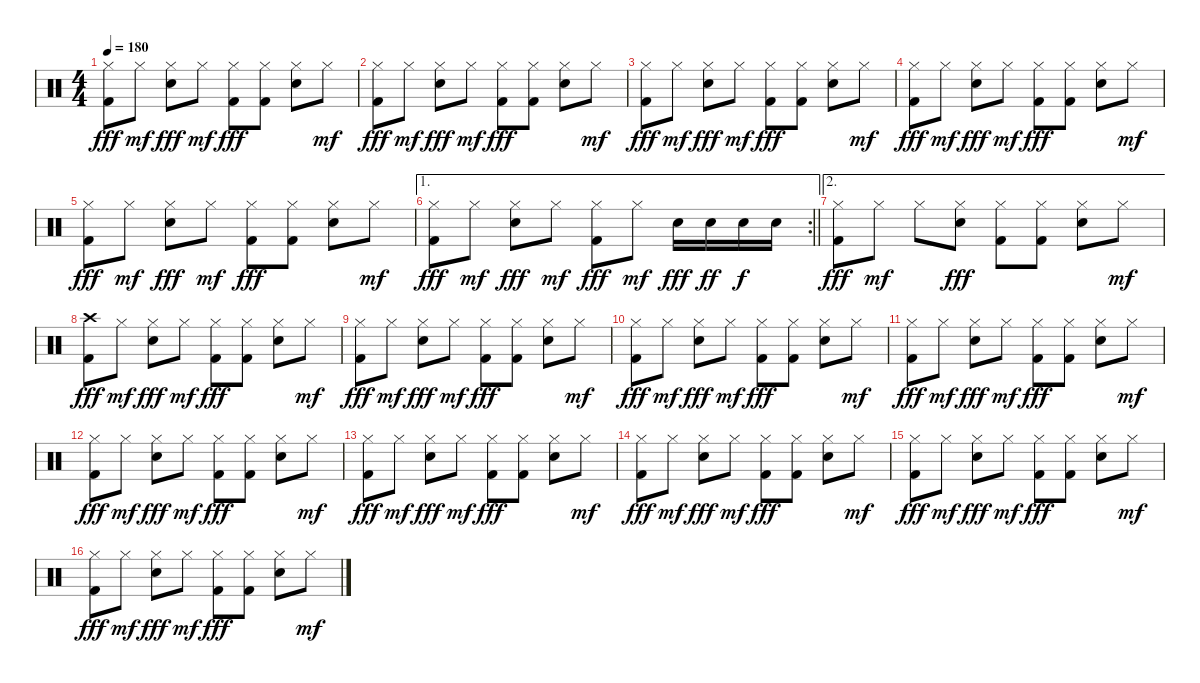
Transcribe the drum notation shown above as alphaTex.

\track "" {instrument percussion}
\staff {score}
\articulation defaults
\ts (4 4)
\tempo 180
\clef neutral
\ks c
("Hi-Hat (closed)" "Kick (hit) 2").8{dy fff} "Hi-Hat (closed)".8{dy mf} ("Hi-Hat (closed)" "Snare (hit) 2").8{dy fff} "Hi-Hat (closed)".8{dy mf} ("Hi-Hat (closed)" "Kick (hit) 2").8{dy fff} ("Hi-Hat (closed)" "Kick (hit) 2").8 ("Hi-Hat (closed)" "Snare (hit) 2").8 "Hi-Hat (closed)".8{dy mf} |
("Hi-Hat (closed)" "Kick (hit) 2").8{dy fff} "Hi-Hat (closed)".8{dy mf} ("Hi-Hat (closed)" "Snare (hit) 2").8{dy fff} "Hi-Hat (closed)".8{dy mf} ("Hi-Hat (closed)" "Kick (hit) 2").8{dy fff} ("Hi-Hat (closed)" "Kick (hit) 2").8 ("Hi-Hat (closed)" "Snare (hit) 2").8 "Hi-Hat (closed)".8{dy mf} |
("Hi-Hat (closed)" "Kick (hit) 2").8{dy fff} "Hi-Hat (closed)".8{dy mf} ("Hi-Hat (closed)" "Snare (hit) 2").8{dy fff} "Hi-Hat (closed)".8{dy mf} ("Hi-Hat (closed)" "Kick (hit) 2").8{dy fff} ("Hi-Hat (closed)" "Kick (hit) 2").8 ("Hi-Hat (closed)" "Snare (hit) 2").8 "Hi-Hat (closed)".8{dy mf} |
("Hi-Hat (closed)" "Kick (hit) 2").8{dy fff} "Hi-Hat (closed)".8{dy mf} ("Hi-Hat (closed)" "Snare (hit) 2").8{dy fff} "Hi-Hat (closed)".8{dy mf} ("Hi-Hat (closed)" "Kick (hit) 2").8{dy fff} ("Hi-Hat (closed)" "Kick (hit) 2").8 ("Hi-Hat (closed)" "Snare (hit) 2").8 "Hi-Hat (closed)".8{dy mf} |
("Hi-Hat (closed)" "Kick (hit) 2").8{dy fff} "Hi-Hat (closed)".8{dy mf} ("Hi-Hat (closed)" "Snare (hit) 2").8{dy fff} "Hi-Hat (closed)".8{dy mf} ("Hi-Hat (closed)" "Kick (hit) 2").8{dy fff} ("Hi-Hat (closed)" "Kick (hit) 2").8 ("Hi-Hat (closed)" "Snare (hit) 2").8 "Hi-Hat (closed)".8{dy mf} |
\ae 1
\rc 2
\barLineRight lightlight
("Hi-Hat (closed)" "Kick (hit) 2").8{dy fff} "Hi-Hat (closed)".8{dy mf} ("Hi-Hat (closed)" "Snare (hit) 2").8{dy fff} "Hi-Hat (closed)".8{dy mf} ("Hi-Hat (closed)" "Kick (hit) 2").8{dy fff} "Hi-Hat (closed)".8{dy mf} "Snare (hit) 2".16{dy fff} "Snare (hit) 2".16{dy ff} "Snare (hit) 2".16{dy f} "Snare (hit) 2".16 |
\ae 2
("Hi-Hat (closed)" "Kick (hit) 2").8{dy fff} "Hi-Hat (closed)".8{dy mf} "Hi-Hat (closed)".8 ("Hi-Hat (closed)" "Snare (hit) 2").8{dy fff} ("Hi-Hat (closed)" "Kick (hit) 2").8 ("Hi-Hat (closed)" "Kick (hit) 2").8 ("Hi-Hat (closed)" "Snare (hit) 2").8 "Hi-Hat (closed)".8{dy mf} |
("Crash high (hit)" "Kick (hit) 2").8{dy fff} "Hi-Hat (closed)".8{dy mf} ("Hi-Hat (closed)" "Snare (hit) 2").8{dy fff} "Hi-Hat (closed)".8{dy mf} ("Hi-Hat (closed)" "Kick (hit) 2").8{dy fff} ("Hi-Hat (closed)" "Kick (hit) 2").8 ("Hi-Hat (closed)" "Snare (hit) 2").8 "Hi-Hat (closed)".8{dy mf} |
("Hi-Hat (closed)" "Kick (hit) 2").8{dy fff} "Hi-Hat (closed)".8{dy mf} ("Hi-Hat (closed)" "Snare (hit) 2").8{dy fff} "Hi-Hat (closed)".8{dy mf} ("Hi-Hat (closed)" "Kick (hit) 2").8{dy fff} ("Hi-Hat (closed)" "Kick (hit) 2").8 ("Hi-Hat (closed)" "Snare (hit) 2").8 "Hi-Hat (closed)".8{dy mf} |
("Hi-Hat (closed)" "Kick (hit) 2").8{dy fff} "Hi-Hat (closed)".8{dy mf} ("Hi-Hat (closed)" "Snare (hit) 2").8{dy fff} "Hi-Hat (closed)".8{dy mf} ("Hi-Hat (closed)" "Kick (hit) 2").8{dy fff} ("Hi-Hat (closed)" "Kick (hit) 2").8 ("Hi-Hat (closed)" "Snare (hit) 2").8 "Hi-Hat (closed)".8{dy mf} |
("Hi-Hat (closed)" "Kick (hit) 2").8{dy fff} "Hi-Hat (closed)".8{dy mf} ("Hi-Hat (closed)" "Snare (hit) 2").8{dy fff} "Hi-Hat (closed)".8{dy mf} ("Hi-Hat (closed)" "Kick (hit) 2").8{dy fff} ("Hi-Hat (closed)" "Kick (hit) 2").8 ("Hi-Hat (closed)" "Snare (hit) 2").8 "Hi-Hat (closed)".8{dy mf} |
("Hi-Hat (closed)" "Kick (hit) 2").8{dy fff} "Hi-Hat (closed)".8{dy mf} ("Hi-Hat (closed)" "Snare (hit) 2").8{dy fff} "Hi-Hat (closed)".8{dy mf} ("Hi-Hat (closed)" "Kick (hit) 2").8{dy fff} ("Hi-Hat (closed)" "Kick (hit) 2").8 ("Hi-Hat (closed)" "Snare (hit) 2").8 "Hi-Hat (closed)".8{dy mf} |
("Hi-Hat (closed)" "Kick (hit) 2").8{dy fff} "Hi-Hat (closed)".8{dy mf} ("Hi-Hat (closed)" "Snare (hit) 2").8{dy fff} "Hi-Hat (closed)".8{dy mf} ("Hi-Hat (closed)" "Kick (hit) 2").8{dy fff} ("Hi-Hat (closed)" "Kick (hit) 2").8 ("Hi-Hat (closed)" "Snare (hit) 2").8 "Hi-Hat (closed)".8{dy mf} |
("Hi-Hat (closed)" "Kick (hit) 2").8{dy fff} "Hi-Hat (closed)".8{dy mf} ("Hi-Hat (closed)" "Snare (hit) 2").8{dy fff} "Hi-Hat (closed)".8{dy mf} ("Hi-Hat (closed)" "Kick (hit) 2").8{dy fff} ("Hi-Hat (closed)" "Kick (hit) 2").8 ("Hi-Hat (closed)" "Snare (hit) 2").8 "Hi-Hat (closed)".8{dy mf} |
("Hi-Hat (closed)" "Kick (hit) 2").8{dy fff} "Hi-Hat (closed)".8{dy mf} ("Hi-Hat (closed)" "Snare (hit) 2").8{dy fff} "Hi-Hat (closed)".8{dy mf} ("Hi-Hat (closed)" "Kick (hit) 2").8{dy fff} ("Hi-Hat (closed)" "Kick (hit) 2").8 ("Hi-Hat (closed)" "Snare (hit) 2").8 "Hi-Hat (closed)".8{dy mf} |
("Hi-Hat (closed)" "Kick (hit) 2").8{dy fff} "Hi-Hat (closed)".8{dy mf} ("Hi-Hat (closed)" "Snare (hit) 2").8{dy fff} "Hi-Hat (closed)".8{dy mf} ("Hi-Hat (closed)" "Kick (hit) 2").8{dy fff} ("Hi-Hat (closed)" "Kick (hit) 2").8 ("Hi-Hat (closed)" "Snare (hit) 2").8 "Hi-Hat (closed)".8{dy mf}
